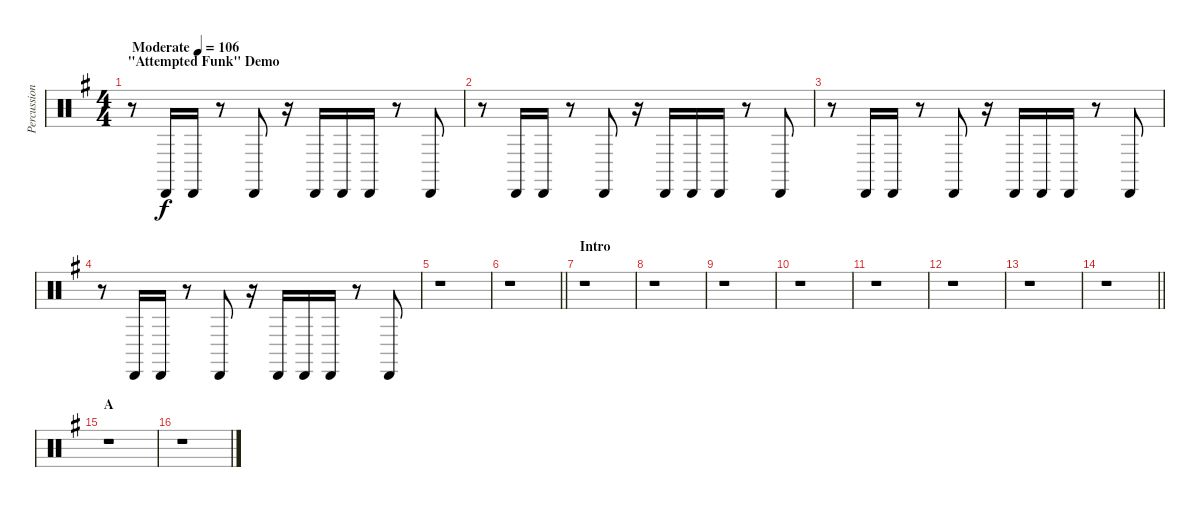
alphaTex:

\track ("Percussion" "Percussion") {instrument percussion}
\staff {score}
\articulation defaults
\ts (4 4)
\section ("" "\"Attempted Funk\" Demo")
\tempo (106 "Moderate")
\clef neutral
\ks g
r.8{dy f} "Cabasa (hit)".16 "Cabasa (hit)".16 r.8 "Cabasa (hit)".8 r.16 "Cabasa (hit)".16 "Cabasa (hit)".16 "Cabasa (hit)".16 r.8 "Cabasa (hit)".8 |
r.8 "Cabasa (hit)".16 "Cabasa (hit)".16 r.8 "Cabasa (hit)".8 r.16 "Cabasa (hit)".16 "Cabasa (hit)".16 "Cabasa (hit)".16 r.8 "Cabasa (hit)".8 |
r.8 "Cabasa (hit)".16 "Cabasa (hit)".16 r.8 "Cabasa (hit)".8 r.16 "Cabasa (hit)".16 "Cabasa (hit)".16 "Cabasa (hit)".16 r.8 "Cabasa (hit)".8 |
r.8 "Cabasa (hit)".16 "Cabasa (hit)".16 r.8 "Cabasa (hit)".8 r.16 "Cabasa (hit)".16 "Cabasa (hit)".16 "Cabasa (hit)".16 r.8 "Cabasa (hit)".8 |
r.1 |
\barLineRight lightlight
r.1 |
\section ("" "Intro")
r.1 |
r.1 |
r.1 |
r.1 |
r.1 |
r.1 |
r.1 |
\barLineRight lightlight
r.1 |
\section ("" "A")
r.1 |
r.1
